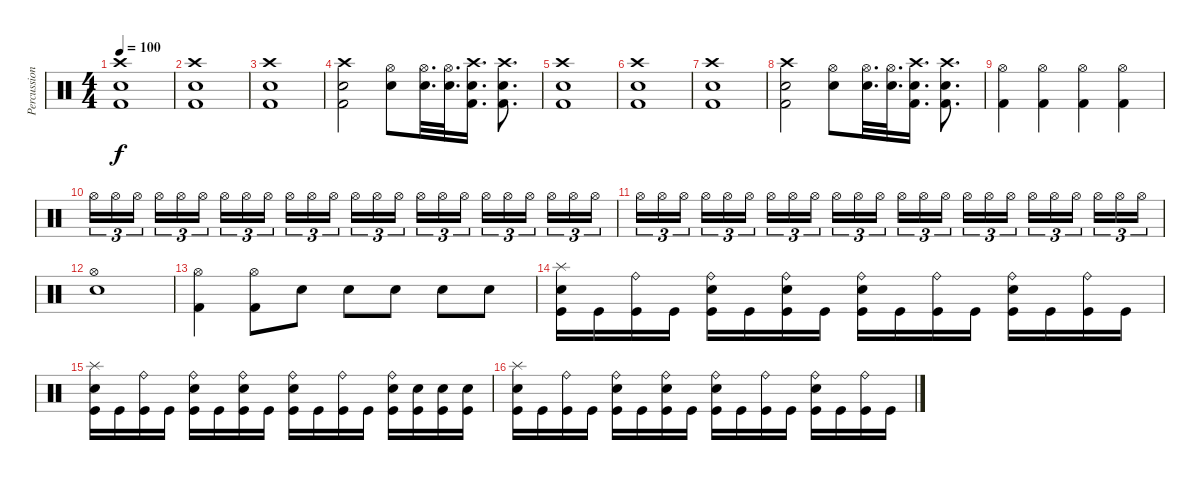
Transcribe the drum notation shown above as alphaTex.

\track ("Percussion" "Percussion") {instrument percussion}
\staff {score}
\articulation defaults
\ts (4 4)
\tempo 100
\clef neutral
\ks c
("Crash high (hit)" "Kick (hit) 2" "Snare (hit) 2").1{dy f} |
("Crash high (hit)" "Kick (hit) 2" "Snare (hit) 2").1 |
("Crash high (hit)" "Kick (hit) 2" "Snare (hit) 2").1 |
("Crash high (hit)" "Kick (hit) 2" "Snare (hit) 2").2 ("Hi-Hat (open)" "Snare (hit) 2").8 ("Hi-Hat (open)" "Snare (hit) 2").32{d} ("Hi-Hat (open)" "Snare (hit) 2").32{d} ("Crash high (hit)" "Kick (hit) 2" "Snare (hit) 2").16{d} ("Crash high (hit)" "Kick (hit) 2" "Snare (hit) 2").8{d} |
("Crash high (hit)" "Kick (hit) 2" "Snare (hit) 2").1 |
("Crash high (hit)" "Kick (hit) 2" "Snare (hit) 2").1 |
("Crash high (hit)" "Kick (hit) 2" "Snare (hit) 2").1 |
("Crash high (hit)" "Kick (hit) 2" "Snare (hit) 2").2 ("Hi-Hat (open)" "Snare (hit) 2").8 ("Hi-Hat (open)" "Snare (hit) 2").32{d} ("Hi-Hat (open)" "Snare (hit) 2").32{d} ("Crash high (hit)" "Kick (hit) 2" "Snare (hit) 2").16{d} ("Crash high (hit)" "Kick (hit) 2" "Snare (hit) 2").8{d} |
("Hi-Hat (open)" "Kick (hit) 2").4 ("Hi-Hat (open)" "Kick (hit) 2").4 ("Hi-Hat (open)" "Kick (hit) 2").4 ("Hi-Hat (open)" "Kick (hit) 2").4 |
"Hi-Hat (open)".16{tu (3 2)} "Hi-Hat (open)".16{tu (3 2)} "Hi-Hat (open)".16{tu (3 2)} "Hi-Hat (open)".16{tu (3 2)} "Hi-Hat (open)".16{tu (3 2)} "Hi-Hat (open)".16{tu (3 2)} "Hi-Hat (open)".16{tu (3 2)} "Hi-Hat (open)".16{tu (3 2)} "Hi-Hat (open)".16{tu (3 2)} "Hi-Hat (open)".16{tu (3 2)} "Hi-Hat (open)".16{tu (3 2)} "Hi-Hat (open)".16{tu (3 2)} "Hi-Hat (open)".16{tu (3 2)} "Hi-Hat (open)".16{tu (3 2)} "Hi-Hat (open)".16{tu (3 2)} "Hi-Hat (open)".16{tu (3 2)} "Hi-Hat (open)".16{tu (3 2)} "Hi-Hat (open)".16{tu (3 2)} "Hi-Hat (open)".16{tu (3 2)} "Hi-Hat (open)".16{tu (3 2)} "Hi-Hat (open)".16{tu (3 2)} "Hi-Hat (open)".16{tu (3 2)} "Hi-Hat (open)".16{tu (3 2)} "Hi-Hat (open)".16{tu (3 2)} |
"Hi-Hat (open)".16{tu (3 2)} "Hi-Hat (open)".16{tu (3 2)} "Hi-Hat (open)".16{tu (3 2)} "Hi-Hat (open)".16{tu (3 2)} "Hi-Hat (open)".16{tu (3 2)} "Hi-Hat (open)".16{tu (3 2)} "Hi-Hat (open)".16{tu (3 2)} "Hi-Hat (open)".16{tu (3 2)} "Hi-Hat (open)".16{tu (3 2)} "Hi-Hat (open)".16{tu (3 2)} "Hi-Hat (open)".16{tu (3 2)} "Hi-Hat (open)".16{tu (3 2)} "Hi-Hat (open)".16{tu (3 2)} "Hi-Hat (open)".16{tu (3 2)} "Hi-Hat (open)".16{tu (3 2)} "Hi-Hat (open)".16{tu (3 2)} "Hi-Hat (open)".16{tu (3 2)} "Hi-Hat (open)".16{tu (3 2)} "Hi-Hat (open)".16{tu (3 2)} "Hi-Hat (open)".16{tu (3 2)} "Hi-Hat (open)".16{tu (3 2)} "Hi-Hat (open)".16{tu (3 2)} "Hi-Hat (open)".16{tu (3 2)} "Hi-Hat (open)".16{tu (3 2)} |
("Hi-Hat (open)" "Snare (hit) 2").1 |
("Hi-Hat (open)" "Kick (hit) 2").4 ("Hi-Hat (open)" "Kick (hit) 2").8 "Snare (hit) 2".8 "Snare (hit) 2".8 "Snare (hit) 2".8 "Snare (hit) 2".8 "Snare (hit) 2".8 |
("Kick (hit)" "Electric Snare (hit)" "Splash (hit)").16 "Kick (hit)".16 ("Kick (hit)" "Ride (bell)").16 "Kick (hit)".16 ("Kick (hit)" "Electric Snare (hit)" "Ride (bell)").16 "Kick (hit)".16 ("Kick (hit)" "Electric Snare (hit)" "Ride (bell)").16 "Kick (hit)".16 ("Kick (hit)" "Electric Snare (hit)" "Ride (bell)").16 "Kick (hit)".16 ("Kick (hit)" "Ride (bell)").16 "Kick (hit)".16 ("Kick (hit)" "Electric Snare (hit)" "Ride (bell)").16 "Kick (hit)".16 ("Kick (hit)" "Ride (bell)").16 "Kick (hit)".16 |
("Kick (hit)" "Electric Snare (hit)" "Splash (hit)").16 "Kick (hit)".16 ("Kick (hit)" "Ride (bell)").16 "Kick (hit)".16 ("Kick (hit)" "Electric Snare (hit)" "Ride (bell)").16 "Kick (hit)".16 ("Kick (hit)" "Electric Snare (hit)" "Ride (bell)").16 "Kick (hit)".16 ("Kick (hit)" "Electric Snare (hit)" "Ride (bell)").16 "Kick (hit)".16 ("Kick (hit)" "Ride (bell)").16 "Kick (hit)".16 ("Kick (hit)" "Electric Snare (hit)" "Ride (bell)").16 ("Kick (hit)" "Electric Snare (hit)").16 ("Kick (hit)" "Electric Snare (hit)").16 ("Kick (hit)" "Electric Snare (hit)").16 |
("Kick (hit)" "Electric Snare (hit)" "Splash (hit)").16 "Kick (hit)".16 ("Kick (hit)" "Ride (bell)").16 "Kick (hit)".16 ("Kick (hit)" "Electric Snare (hit)" "Ride (bell)").16 "Kick (hit)".16 ("Kick (hit)" "Electric Snare (hit)" "Ride (bell)").16 "Kick (hit)".16 ("Kick (hit)" "Electric Snare (hit)" "Ride (bell)").16 "Kick (hit)".16 ("Kick (hit)" "Ride (bell)").16 "Kick (hit)".16 ("Kick (hit)" "Electric Snare (hit)" "Ride (bell)").16 "Kick (hit)".16 ("Kick (hit)" "Ride (bell)").16 "Kick (hit)".16
